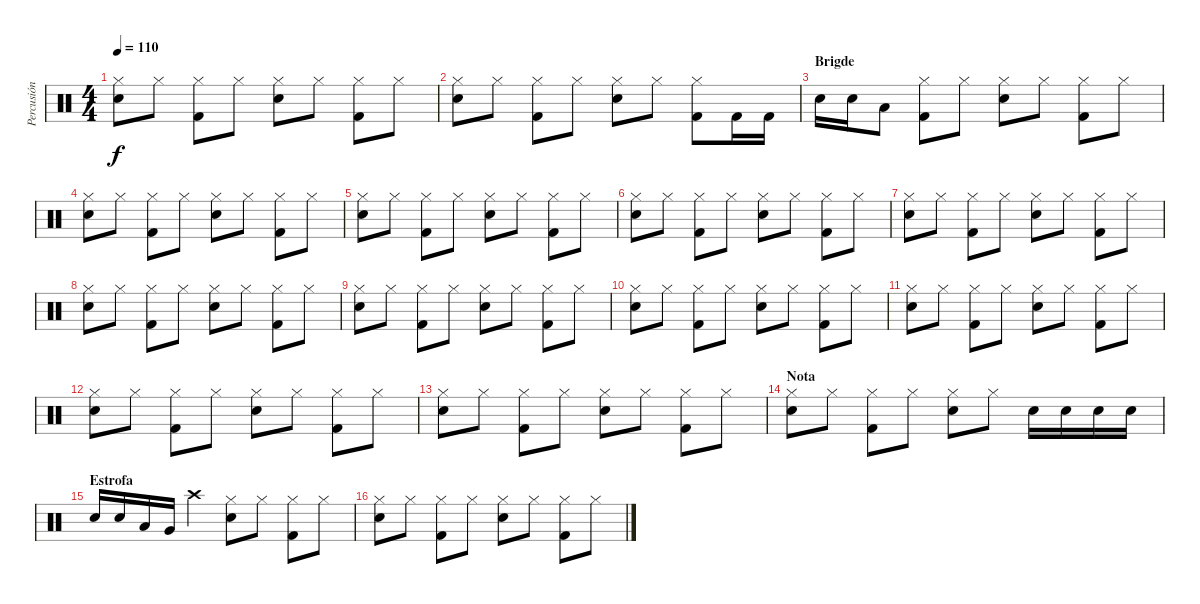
\track ("Percusión" "Percusión") {instrument percussion}
\staff {score}
\articulation defaults
\ts (4 4)
\tempo 110
\clef neutral
\ks c
("Hi-Hat (closed)" "Electric Snare (hit)").8{dy f} "Hi-Hat (closed)".8 ("Hi-Hat (closed)" "Kick (hit) 2").8 "Hi-Hat (closed)".8 ("Hi-Hat (closed)" "Electric Snare (hit)").8 "Hi-Hat (closed)".8 ("Hi-Hat (closed)" "Kick (hit) 2").8 "Hi-Hat (closed)".8 |
("Hi-Hat (closed)" "Electric Snare (hit)").8 "Hi-Hat (closed)".8 ("Hi-Hat (closed)" "Kick (hit) 2").8 "Hi-Hat (closed)".8 ("Hi-Hat (closed)" "Electric Snare (hit)").8 "Hi-Hat (closed)".8 ("Hi-Hat (closed)" "Kick (hit) 2").8 "Kick (hit) 2".16 "Kick (hit) 2".16 |
\section ("" "Brigde")
"Electric Snare (hit)".16 "Electric Snare (hit)".16 "Low Tom (hit)".8 ("Hi-Hat (closed)" "Kick (hit) 2").8 "Hi-Hat (closed)".8 ("Hi-Hat (closed)" "Electric Snare (hit)").8 "Hi-Hat (closed)".8 ("Hi-Hat (closed)" "Kick (hit) 2").8 "Hi-Hat (closed)".8 |
("Hi-Hat (closed)" "Electric Snare (hit)").8 "Hi-Hat (closed)".8 ("Hi-Hat (closed)" "Kick (hit) 2").8 "Hi-Hat (closed)".8 ("Hi-Hat (closed)" "Electric Snare (hit)").8 "Hi-Hat (closed)".8 ("Hi-Hat (closed)" "Kick (hit) 2").8 "Hi-Hat (closed)".8 |
("Hi-Hat (closed)" "Electric Snare (hit)").8 "Hi-Hat (closed)".8 ("Hi-Hat (closed)" "Kick (hit) 2").8 "Hi-Hat (closed)".8 ("Hi-Hat (closed)" "Electric Snare (hit)").8 "Hi-Hat (closed)".8 ("Hi-Hat (closed)" "Kick (hit) 2").8 "Hi-Hat (closed)".8 |
("Hi-Hat (closed)" "Electric Snare (hit)").8 "Hi-Hat (closed)".8 ("Hi-Hat (closed)" "Kick (hit) 2").8 "Hi-Hat (closed)".8 ("Hi-Hat (closed)" "Electric Snare (hit)").8 "Hi-Hat (closed)".8 ("Hi-Hat (closed)" "Kick (hit) 2").8 "Hi-Hat (closed)".8 |
("Hi-Hat (closed)" "Electric Snare (hit)").8 "Hi-Hat (closed)".8 ("Hi-Hat (closed)" "Kick (hit) 2").8 "Hi-Hat (closed)".8 ("Hi-Hat (closed)" "Electric Snare (hit)").8 "Hi-Hat (closed)".8 ("Hi-Hat (closed)" "Kick (hit) 2").8 "Hi-Hat (closed)".8 |
("Hi-Hat (closed)" "Electric Snare (hit)").8 "Hi-Hat (closed)".8 ("Hi-Hat (closed)" "Kick (hit) 2").8 "Hi-Hat (closed)".8 ("Hi-Hat (closed)" "Electric Snare (hit)").8 "Hi-Hat (closed)".8 ("Hi-Hat (closed)" "Kick (hit) 2").8 "Hi-Hat (closed)".8 |
("Hi-Hat (closed)" "Electric Snare (hit)").8 "Hi-Hat (closed)".8 ("Hi-Hat (closed)" "Kick (hit) 2").8 "Hi-Hat (closed)".8 ("Hi-Hat (closed)" "Electric Snare (hit)").8 "Hi-Hat (closed)".8 ("Hi-Hat (closed)" "Kick (hit) 2").8 "Hi-Hat (closed)".8 |
("Hi-Hat (closed)" "Electric Snare (hit)").8 "Hi-Hat (closed)".8 ("Hi-Hat (closed)" "Kick (hit) 2").8 "Hi-Hat (closed)".8 ("Hi-Hat (closed)" "Electric Snare (hit)").8 "Hi-Hat (closed)".8 ("Hi-Hat (closed)" "Kick (hit) 2").8 "Hi-Hat (closed)".8 |
("Hi-Hat (closed)" "Electric Snare (hit)").8 "Hi-Hat (closed)".8 ("Hi-Hat (closed)" "Kick (hit) 2").8 "Hi-Hat (closed)".8 ("Hi-Hat (closed)" "Electric Snare (hit)").8 "Hi-Hat (closed)".8 ("Hi-Hat (closed)" "Kick (hit) 2").8 "Hi-Hat (closed)".8 |
("Hi-Hat (closed)" "Electric Snare (hit)").8 "Hi-Hat (closed)".8 ("Hi-Hat (closed)" "Kick (hit) 2").8 "Hi-Hat (closed)".8 ("Hi-Hat (closed)" "Electric Snare (hit)").8 "Hi-Hat (closed)".8 ("Hi-Hat (closed)" "Kick (hit) 2").8 "Hi-Hat (closed)".8 |
("Hi-Hat (closed)" "Electric Snare (hit)").8 "Hi-Hat (closed)".8 ("Hi-Hat (closed)" "Kick (hit) 2").8 "Hi-Hat (closed)".8 ("Hi-Hat (closed)" "Electric Snare (hit)").8 "Hi-Hat (closed)".8 ("Hi-Hat (closed)" "Kick (hit) 2").8 "Hi-Hat (closed)".8 |
\section ("" "Nota")
("Hi-Hat (closed)" "Electric Snare (hit)").8 "Hi-Hat (closed)".8 ("Hi-Hat (closed)" "Kick (hit) 2").8 "Hi-Hat (closed)".8 ("Hi-Hat (closed)" "Electric Snare (hit)").8 "Hi-Hat (closed)".8 "Electric Snare (hit)".16 "Electric Snare (hit)".16 "Electric Snare (hit)".16 "Electric Snare (hit)".16 |
\section ("" "Estrofa")
"Electric Snare (hit)".16 "Electric Snare (hit)".16 "Low Tom (hit)".16 "Very Low Tom (hit)".16 "Crash high (hit)".4 ("Hi-Hat (closed)" "Electric Snare (hit)").8 "Hi-Hat (closed)".8 ("Hi-Hat (closed)" "Kick (hit) 2").8 "Hi-Hat (closed)".8 |
("Hi-Hat (closed)" "Electric Snare (hit)").8 "Hi-Hat (closed)".8 ("Hi-Hat (closed)" "Kick (hit) 2").8 "Hi-Hat (closed)".8 ("Hi-Hat (closed)" "Electric Snare (hit)").8 "Hi-Hat (closed)".8 ("Hi-Hat (closed)" "Kick (hit) 2").8 "Hi-Hat (closed)".8
